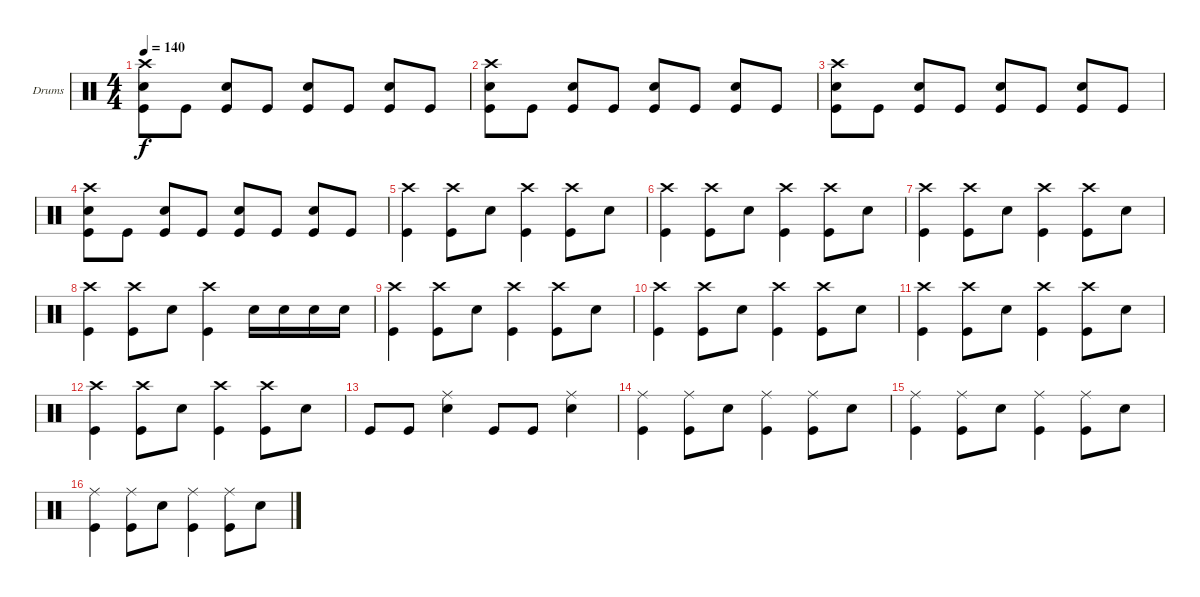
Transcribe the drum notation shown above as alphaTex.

\bracketExtendMode groupsimilarinstruments
\firstSystemTrackNameOrientation horizontal
\otherSystemsTrackNameOrientation horizontal
\track ("Ryan Seamen" "Drums") {instrument percussion}
\staff {score}
\articulation defaults
\ts (4 4)
\tempo 140
\clef neutral
\ks c
("Crash high (hit)" "Snare (hit) 2" "Kick (hit)").8{dy f} "Kick (hit)".8 ("Snare (hit) 2" "Kick (hit)").8 "Kick (hit)".8 ("Snare (hit) 2" "Kick (hit)").8 "Kick (hit)".8 ("Snare (hit) 2" "Kick (hit)").8 "Kick (hit)".8 |
("Crash high (hit)" "Snare (hit) 2" "Kick (hit)").8 "Kick (hit)".8 ("Snare (hit) 2" "Kick (hit)").8 "Kick (hit)".8 ("Snare (hit) 2" "Kick (hit)").8 "Kick (hit)".8 ("Snare (hit) 2" "Kick (hit)").8 "Kick (hit)".8 |
("Crash high (hit)" "Snare (hit) 2" "Kick (hit)").8 "Kick (hit)".8 ("Snare (hit) 2" "Kick (hit)").8 "Kick (hit)".8 ("Snare (hit) 2" "Kick (hit)").8 "Kick (hit)".8 ("Snare (hit) 2" "Kick (hit)").8 "Kick (hit)".8 |
("Crash high (hit)" "Snare (hit) 2" "Kick (hit)").8 "Kick (hit)".8 ("Snare (hit) 2" "Kick (hit)").8 "Kick (hit)".8 ("Snare (hit) 2" "Kick (hit)").8 "Kick (hit)".8 ("Snare (hit) 2" "Kick (hit)").8 "Kick (hit)".8 |
("Crash high (hit)" "Kick (hit)").4 ("Crash high (hit)" "Kick (hit)").8 "Snare (hit) 2".8 ("Crash high (hit)" "Kick (hit)").4 ("Crash high (hit)" "Kick (hit)").8 "Snare (hit) 2".8 |
("Crash high (hit)" "Kick (hit)").4 ("Crash high (hit)" "Kick (hit)").8 "Snare (hit) 2".8 ("Crash high (hit)" "Kick (hit)").4 ("Crash high (hit)" "Kick (hit)").8 "Snare (hit) 2".8 |
("Crash high (hit)" "Kick (hit)").4 ("Crash high (hit)" "Kick (hit)").8 "Snare (hit) 2".8 ("Crash high (hit)" "Kick (hit)").4 ("Crash high (hit)" "Kick (hit)").8 "Snare (hit) 2".8 |
("Crash high (hit)" "Kick (hit)").4 ("Crash high (hit)" "Kick (hit)").8 "Snare (hit) 2".8 ("Crash high (hit)" "Kick (hit)").4 "Snare (hit) 2".16 "Snare (hit) 2".16 "Snare (hit) 2".16 "Snare (hit) 2".16 |
("Crash high (hit)" "Kick (hit)").4 ("Crash high (hit)" "Kick (hit)").8 "Snare (hit) 2".8 ("Crash high (hit)" "Kick (hit)").4 ("Crash high (hit)" "Kick (hit)").8 "Snare (hit) 2".8 |
("Crash high (hit)" "Kick (hit)").4 ("Crash high (hit)" "Kick (hit)").8 "Snare (hit) 2".8 ("Crash high (hit)" "Kick (hit)").4 ("Crash high (hit)" "Kick (hit)").8 "Snare (hit) 2".8 |
("Crash high (hit)" "Kick (hit)").4 ("Crash high (hit)" "Kick (hit)").8 "Snare (hit) 2".8 ("Crash high (hit)" "Kick (hit)").4 ("Crash high (hit)" "Kick (hit)").8 "Snare (hit) 2".8 |
("Crash high (hit)" "Kick (hit)").4 ("Crash high (hit)" "Kick (hit)").8 "Snare (hit) 2".8 ("Crash high (hit)" "Kick (hit)").4 ("Crash high (hit)" "Kick (hit)").8 "Snare (hit) 2".8 |
"Kick (hit)".8 "Kick (hit)".8 ("Ride (middle)" "Snare (hit) 2").4 "Kick (hit)".8 "Kick (hit)".8 ("Ride (middle)" "Snare (hit) 2").4 |
("Ride (middle)" "Kick (hit)").4 ("Ride (middle)" "Kick (hit)").8 "Snare (hit) 2".8 ("Ride (middle)" "Kick (hit)").4 ("Ride (middle)" "Kick (hit)").8 "Snare (hit) 2".8 |
("Ride (middle)" "Kick (hit)").4 ("Ride (middle)" "Kick (hit)").8 "Snare (hit) 2".8 ("Ride (middle)" "Kick (hit)").4 ("Ride (middle)" "Kick (hit)").8 "Snare (hit) 2".8 |
("Ride (middle)" "Kick (hit)").4 ("Ride (middle)" "Kick (hit)").8 "Snare (hit) 2".8 ("Ride (middle)" "Kick (hit)").4 ("Ride (middle)" "Kick (hit)").8 "Snare (hit) 2".8
